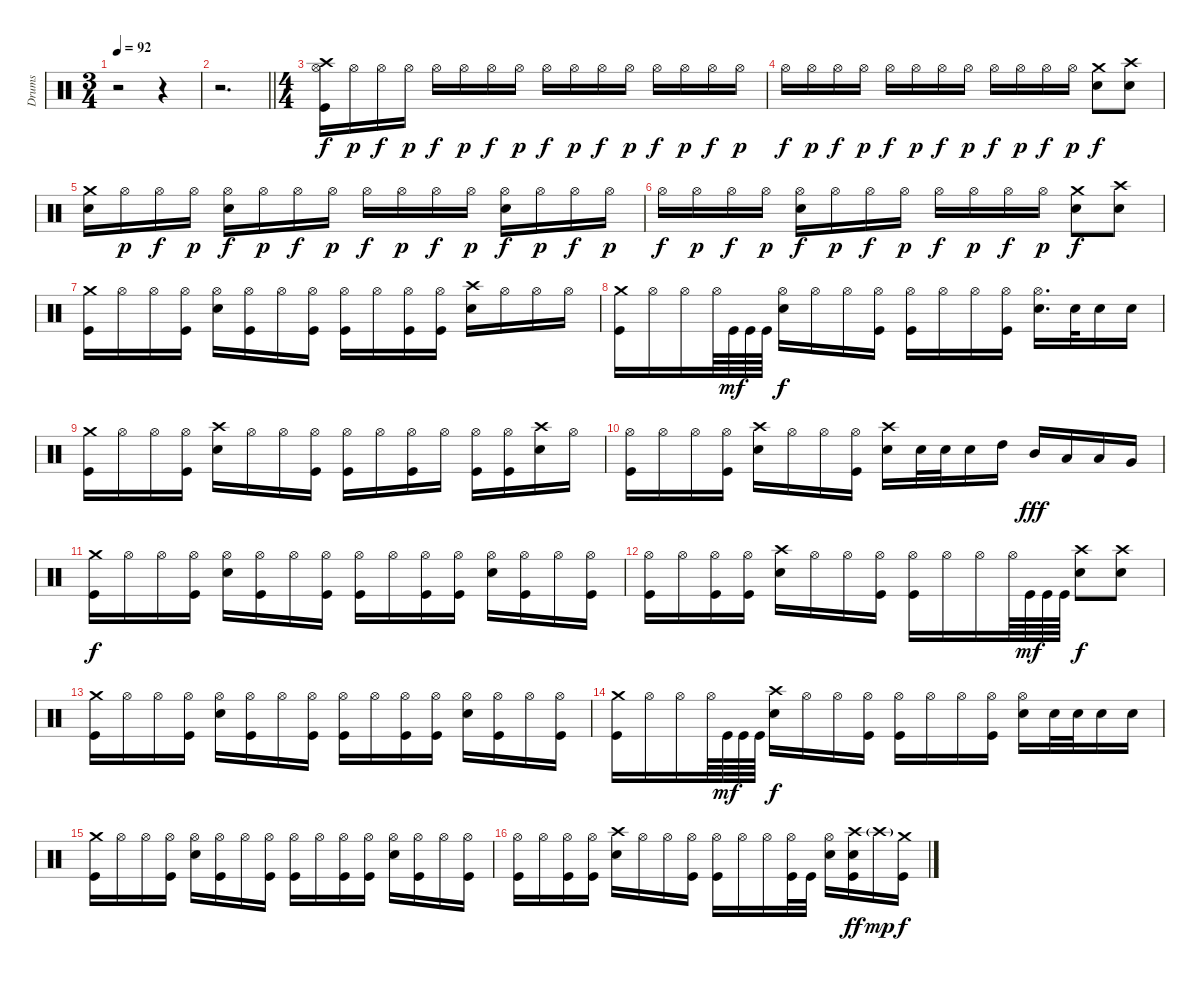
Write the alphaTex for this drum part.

\track ("Drums" "Drums") {instrument percussion}
\staff {score}
\articulation defaults
\ts (3 4)
\tempo 92
\clef neutral
\ks c
r.2{dy f} r.4 |
\barLineRight lightlight
r.2{d} |
\ts (4 4)
\beaming (8 2 2 2 2)
("Hi-Hat (open)" "Crash high (hit)" "Kick (hit)").16 "Hi-Hat (open)".16{dy p} "Hi-Hat (open)".16{dy f} "Hi-Hat (open)".16{dy p} "Hi-Hat (open)".16{dy f} "Hi-Hat (open)".16{dy p} "Hi-Hat (open)".16{dy f} "Hi-Hat (open)".16{dy p} "Hi-Hat (open)".16{dy f} "Hi-Hat (open)".16{dy p} "Hi-Hat (open)".16{dy f} "Hi-Hat (open)".16{dy p} "Hi-Hat (open)".16{dy f} "Hi-Hat (open)".16{dy p} "Hi-Hat (open)".16{dy f} "Hi-Hat (open)".16{dy p} |
"Hi-Hat (open)".16{dy f} "Hi-Hat (open)".16{dy p} "Hi-Hat (open)".16{dy f} "Hi-Hat (open)".16{dy p} "Hi-Hat (open)".16{dy f} "Hi-Hat (open)".16{dy p} "Hi-Hat (open)".16{dy f} "Hi-Hat (open)".16{dy p} "Hi-Hat (open)".16{dy f} "Hi-Hat (open)".16{dy p} "Hi-Hat (open)".16{dy f} "Hi-Hat (open)".16{dy p} ("Crash medium (hit)" "Snare (hit) 2").8{dy f} ("Crash high (hit)" "Snare (hit) 2").8 |
("Crash medium (hit)" "Snare (hit) 2").16 "Hi-Hat (open)".16{dy p} "Hi-Hat (open)".16{dy f} "Hi-Hat (open)".16{dy p} ("Hi-Hat (open)" "Snare (hit) 2").16{dy f} "Hi-Hat (open)".16{dy p} "Hi-Hat (open)".16{dy f} "Hi-Hat (open)".16{dy p} "Hi-Hat (open)".16{dy f} "Hi-Hat (open)".16{dy p} "Hi-Hat (open)".16{dy f} "Hi-Hat (open)".16{dy p} ("Hi-Hat (open)" "Snare (hit) 2").16{dy f} "Hi-Hat (open)".16{dy p} "Hi-Hat (open)".16{dy f} "Hi-Hat (open)".16{dy p} |
"Hi-Hat (open)".16{dy f} "Hi-Hat (open)".16{dy p} "Hi-Hat (open)".16{dy f} "Hi-Hat (open)".16{dy p} ("Hi-Hat (open)" "Snare (hit) 2").16{dy f} "Hi-Hat (open)".16{dy p} "Hi-Hat (open)".16{dy f} "Hi-Hat (open)".16{dy p} "Hi-Hat (open)".16{dy f} "Hi-Hat (open)".16{dy p} "Hi-Hat (open)".16{dy f} "Hi-Hat (open)".16{dy p} ("Crash medium (hit)" "Snare (hit) 2").8{dy f} ("Crash high (hit)" "Snare (hit) 2").8 |
("Crash medium (hit)" "Kick (hit)").16 "Hi-Hat (open)".16 "Hi-Hat (open)".16 ("Hi-Hat (open)" "Kick (hit)").16 ("Hi-Hat (open)" "Snare (hit) 2").16 ("Hi-Hat (open)" "Kick (hit)").16 "Hi-Hat (open)".16 ("Hi-Hat (open)" "Kick (hit)").16 ("Hi-Hat (open)" "Kick (hit)").16 "Hi-Hat (open)".16 ("Hi-Hat (open)" "Kick (hit)").16 ("Hi-Hat (open)" "Kick (hit)").16 ("Crash high (hit)" "Snare (hit) 2").16 "Hi-Hat (open)".16 "Hi-Hat (open)".16 "Hi-Hat (open)".16 |
("Crash medium (hit)" "Kick (hit)").16 "Hi-Hat (open)".16 "Hi-Hat (open)".16 "Hi-Hat (open)".64 "Kick (hit)".64{dy mf} "Kick (hit)".64 "Kick (hit)".64 ("Hi-Hat (open)" "Snare (hit) 2").16{dy f} "Hi-Hat (open)".16 "Hi-Hat (open)".16 ("Hi-Hat (open)" "Kick (hit)").16 ("Hi-Hat (open)" "Kick (hit)").16 "Hi-Hat (open)".16 "Hi-Hat (open)".16 ("Hi-Hat (open)" "Kick (hit)").16 ("Hi-Hat (open)" "Snare (hit) 2").16{d} "Snare (hit) 2".32 "Snare (hit) 2".16 "Snare (hit) 2".16 |
("Crash medium (hit)" "Kick (hit)").16 "Hi-Hat (open)".16 "Hi-Hat (open)".16 ("Hi-Hat (open)" "Kick (hit)").16 ("Crash high (hit)" "Snare (hit) 2").16 "Hi-Hat (open)".16 "Hi-Hat (open)".16 ("Hi-Hat (open)" "Kick (hit)").16 ("Hi-Hat (open)" "Kick (hit)").16 "Hi-Hat (open)".16 ("Hi-Hat (open)" "Kick (hit)").16 "Hi-Hat (open)".16 ("Hi-Hat (open)" "Kick (hit)").16 ("Hi-Hat (open)" "Kick (hit)").16 ("Crash high (hit)" "Snare (hit) 2").16 "Hi-Hat (open)".16 |
("Hi-Hat (open)" "Kick (hit)").16 "Hi-Hat (open)".16 "Hi-Hat (open)".16 ("Hi-Hat (open)" "Kick (hit)").16 ("Crash high (hit)" "Snare (hit) 2").16 "Hi-Hat (open)".16 "Hi-Hat (open)".16 ("Hi-Hat (open)" "Kick (hit)").16 ("Crash high (hit)" "Snare (hit) 2").16 "Snare (hit) 2".32 "Snare (hit) 2".32 "Snare (hit) 2".16 "High Tom (hit)".16 "Mid Tom (hit)".16{dy fff} "Low Tom (hit)".16 "Low Tom (hit)".16 "Very Low Tom (hit)".16 |
("Crash medium (hit)" "Kick (hit)").16{dy f} "Hi-Hat (open)".16 "Hi-Hat (open)".16 ("Hi-Hat (open)" "Kick (hit)").16 ("Hi-Hat (open)" "Snare (hit) 2").16 ("Hi-Hat (open)" "Kick (hit)").16 "Hi-Hat (open)".16 ("Hi-Hat (open)" "Kick (hit)").16 ("Hi-Hat (open)" "Kick (hit)").16 "Hi-Hat (open)".16 ("Hi-Hat (open)" "Kick (hit)").16 ("Hi-Hat (open)" "Kick (hit)").16 ("Hi-Hat (open)" "Snare (hit) 2").16 ("Hi-Hat (open)" "Kick (hit)").16 "Hi-Hat (open)".16 ("Hi-Hat (open)" "Kick (hit)").16 |
("Hi-Hat (open)" "Kick (hit)").16 "Hi-Hat (open)".16 ("Hi-Hat (open)" "Kick (hit)").16 ("Hi-Hat (open)" "Kick (hit)").16 ("Crash high (hit)" "Snare (hit) 2").16 "Hi-Hat (open)".16 "Hi-Hat (open)".16 ("Hi-Hat (open)" "Kick (hit)").16 ("Hi-Hat (open)" "Kick (hit)").16 "Hi-Hat (open)".16 "Hi-Hat (open)".16 "Hi-Hat (open)".64 "Kick (hit)".64{dy mf} "Kick (hit)".64 "Kick (hit)".64 ("Crash high (hit)" "Snare (hit) 2").8{dy f} ("Crash high (hit)" "Snare (hit) 2").8 |
("Crash medium (hit)" "Kick (hit)").16 "Hi-Hat (open)".16 "Hi-Hat (open)".16 ("Hi-Hat (open)" "Kick (hit)").16 ("Hi-Hat (open)" "Snare (hit) 2").16 ("Hi-Hat (open)" "Kick (hit)").16 "Hi-Hat (open)".16 ("Hi-Hat (open)" "Kick (hit)").16 ("Hi-Hat (open)" "Kick (hit)").16 "Hi-Hat (open)".16 ("Hi-Hat (open)" "Kick (hit)").16 ("Hi-Hat (open)" "Kick (hit)").16 ("Hi-Hat (open)" "Snare (hit) 2").16 ("Hi-Hat (open)" "Kick (hit)").16 "Hi-Hat (open)".16 ("Hi-Hat (open)" "Kick (hit)").16 |
("Crash medium (hit)" "Kick (hit)").16 "Hi-Hat (open)".16 "Hi-Hat (open)".16 "Hi-Hat (open)".64 "Kick (hit)".64{dy mf} "Kick (hit)".64 "Kick (hit)".64 ("Crash high (hit)" "Snare (hit) 2").16{dy f} "Hi-Hat (open)".16 "Hi-Hat (open)".16 ("Hi-Hat (open)" "Kick (hit)").16 ("Hi-Hat (open)" "Kick (hit)").16 "Hi-Hat (open)".16 "Hi-Hat (open)".16 ("Hi-Hat (open)" "Kick (hit)").16 ("Hi-Hat (open)" "Snare (hit) 2").16 "Snare (hit) 2".32 "Snare (hit) 2".32 "Snare (hit) 2".16 "Snare (hit) 2".16 |
("Crash medium (hit)" "Kick (hit)").16 "Hi-Hat (open)".16 "Hi-Hat (open)".16 ("Hi-Hat (open)" "Kick (hit)").16 ("Hi-Hat (open)" "Snare (hit) 2").16 ("Hi-Hat (open)" "Kick (hit)").16 "Hi-Hat (open)".16 ("Hi-Hat (open)" "Kick (hit)").16 ("Hi-Hat (open)" "Kick (hit)").16 "Hi-Hat (open)".16 ("Hi-Hat (open)" "Kick (hit)").16 ("Hi-Hat (open)" "Kick (hit)").16 ("Hi-Hat (open)" "Snare (hit) 2").16 ("Hi-Hat (open)" "Kick (hit)").16 "Hi-Hat (open)".16 ("Hi-Hat (open)" "Kick (hit)").16 |
("Hi-Hat (open)" "Kick (hit)").16 "Hi-Hat (open)".16 ("Hi-Hat (open)" "Kick (hit)").16 ("Hi-Hat (open)" "Kick (hit)").16 ("Crash high (hit)" "Snare (hit) 2").16 "Hi-Hat (open)".16 "Hi-Hat (open)".16 ("Hi-Hat (open)" "Kick (hit)").16 ("Hi-Hat (open)" "Kick (hit)").16 "Hi-Hat (open)".16 "Hi-Hat (open)".16 ("Hi-Hat (open)" "Kick (hit)").32 "Kick (hit)".32 ("Hi-Hat (open)" "Snare (hit) 2").16 ("Crash high (hit)" "Snare (hit) 2" "Kick (hit)").16{dy ff} "Crash high (hit)"{g}.16{dy mp} ("Crash medium (hit)" "Kick (hit)").16{dy f}
